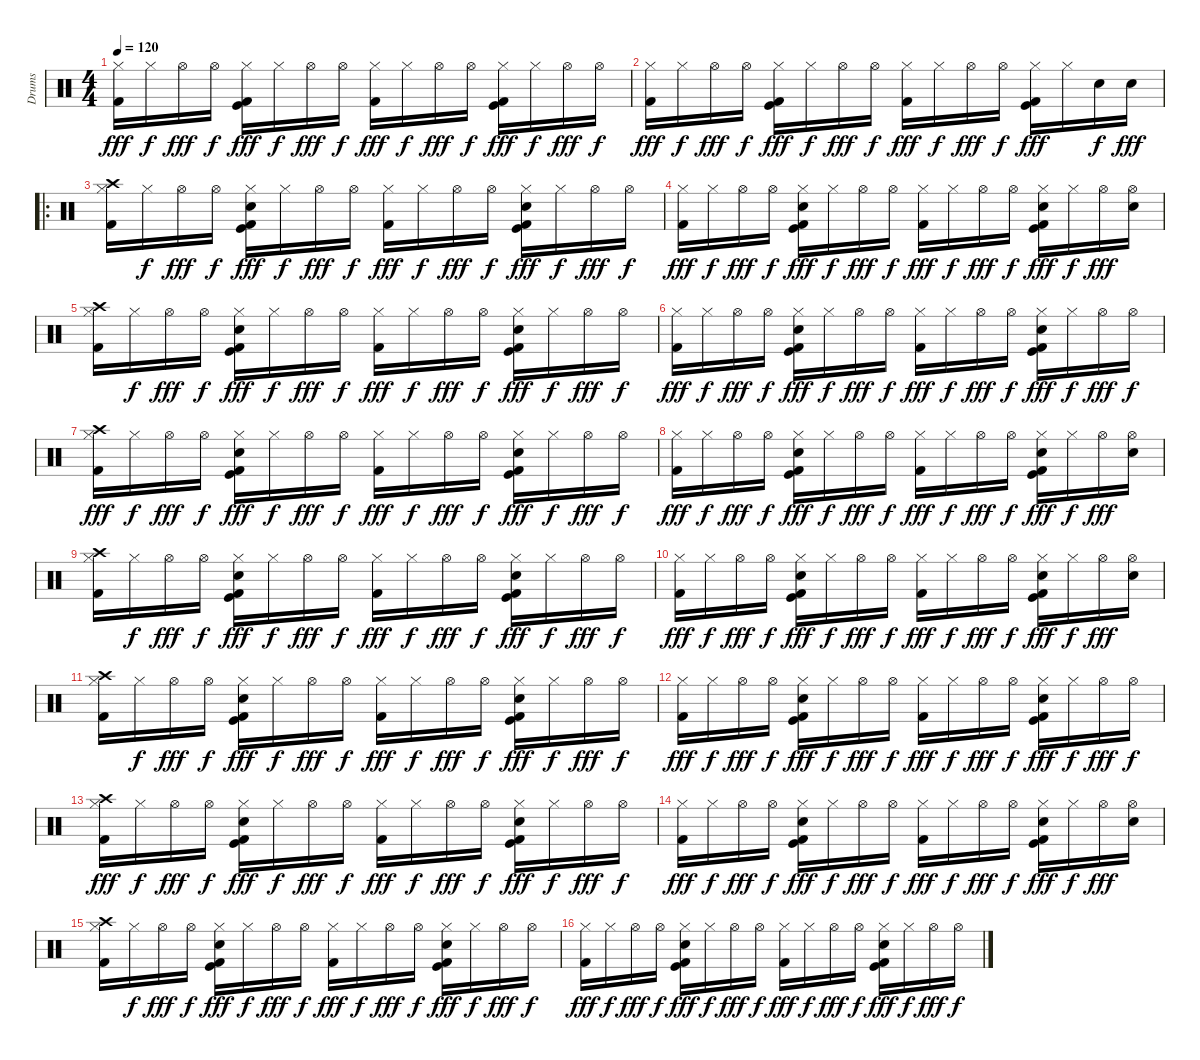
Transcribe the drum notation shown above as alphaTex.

\track ("Drums" "Drums") {instrument percussion}
\staff {score}
\articulation defaults
\ts (4 4)
\tempo 120
\clef neutral
\ks c
("Hi-Hat (closed)" "Kick (hit) 2").16{dy fff} "Hi-Hat (closed)".16{dy f} "Hi-Hat (open)".16{dy fff} "Hi-Hat (open)".16{dy f} ("Hi-Hat (closed)" "Kick (hit)" "Kick (hit) 2").16{dy fff} "Hi-Hat (closed)".16{dy f} "Hi-Hat (open)".16{dy fff} "Hi-Hat (open)".16{dy f} ("Hi-Hat (closed)" "Kick (hit) 2").16{dy fff} "Hi-Hat (closed)".16{dy f} "Hi-Hat (open)".16{dy fff} "Hi-Hat (open)".16{dy f} ("Hi-Hat (closed)" "Kick (hit)" "Kick (hit) 2").16{dy fff} "Hi-Hat (closed)".16{dy f} "Hi-Hat (open)".16{dy fff} "Hi-Hat (open)".16{dy f} |
("Hi-Hat (closed)" "Kick (hit) 2").16{dy fff} "Hi-Hat (closed)".16{dy f} "Hi-Hat (open)".16{dy fff} "Hi-Hat (open)".16{dy f} ("Hi-Hat (closed)" "Kick (hit)" "Kick (hit) 2").16{dy fff} "Hi-Hat (closed)".16{dy f} "Hi-Hat (open)".16{dy fff} "Hi-Hat (open)".16{dy f} ("Hi-Hat (closed)" "Kick (hit) 2").16{dy fff} "Hi-Hat (closed)".16{dy f} "Hi-Hat (open)".16{dy fff} "Hi-Hat (open)".16{dy f} ("Hi-Hat (closed)" "Kick (hit)" "Kick (hit) 2").16{dy fff} "Hi-Hat (closed)".16 "Electric Snare (hit)".16{dy f} "Electric Snare (hit)".16{dy fff} |
\ro
("Hi-Hat (closed)" "Crash high (hit)" "Kick (hit) 2").16 "Hi-Hat (closed)".16{dy f} "Hi-Hat (open)".16{dy fff} "Hi-Hat (open)".16{dy f} ("Hi-Hat (closed)" "Electric Snare (hit)" "Kick (hit)" "Kick (hit) 2").16{dy fff} "Hi-Hat (closed)".16{dy f} "Hi-Hat (open)".16{dy fff} "Hi-Hat (open)".16{dy f} ("Hi-Hat (closed)" "Kick (hit) 2").16{dy fff} "Hi-Hat (closed)".16{dy f} "Hi-Hat (open)".16{dy fff} "Hi-Hat (open)".16{dy f} ("Hi-Hat (closed)" "Electric Snare (hit)" "Kick (hit)" "Kick (hit) 2").16{dy fff} "Hi-Hat (closed)".16{dy f} "Hi-Hat (open)".16{dy fff} "Hi-Hat (open)".16{dy f} |
("Hi-Hat (closed)" "Kick (hit) 2").16{dy fff} "Hi-Hat (closed)".16{dy f} "Hi-Hat (open)".16{dy fff} "Hi-Hat (open)".16{dy f} ("Hi-Hat (closed)" "Electric Snare (hit)" "Kick (hit) 2" "Kick (hit)").16{dy fff} "Hi-Hat (closed)".16{dy f} "Hi-Hat (open)".16{dy fff} "Hi-Hat (open)".16{dy f} ("Hi-Hat (closed)" "Kick (hit) 2").16{dy fff} "Hi-Hat (closed)".16{dy f} "Hi-Hat (open)".16{dy fff} "Hi-Hat (open)".16{dy f} ("Hi-Hat (closed)" "Electric Snare (hit)" "Kick (hit)" "Kick (hit) 2").16{dy fff} "Hi-Hat (closed)".16{dy f} "Hi-Hat (open)".16{dy fff} ("Hi-Hat (open)" "Electric Snare (hit)").16 |
("Hi-Hat (closed)" "Crash high (hit)" "Kick (hit) 2").16 "Hi-Hat (closed)".16{dy f} "Hi-Hat (open)".16{dy fff} "Hi-Hat (open)".16{dy f} ("Hi-Hat (closed)" "Electric Snare (hit)" "Kick (hit)" "Kick (hit) 2").16{dy fff} "Hi-Hat (closed)".16{dy f} "Hi-Hat (open)".16{dy fff} "Hi-Hat (open)".16{dy f} ("Hi-Hat (closed)" "Kick (hit) 2").16{dy fff} "Hi-Hat (closed)".16{dy f} "Hi-Hat (open)".16{dy fff} "Hi-Hat (open)".16{dy f} ("Hi-Hat (closed)" "Electric Snare (hit)" "Kick (hit)" "Kick (hit) 2").16{dy fff} "Hi-Hat (closed)".16{dy f} "Hi-Hat (open)".16{dy fff} "Hi-Hat (open)".16{dy f} |
("Hi-Hat (closed)" "Kick (hit) 2").16{dy fff} "Hi-Hat (closed)".16{dy f} "Hi-Hat (open)".16{dy fff} "Hi-Hat (open)".16{dy f} ("Hi-Hat (closed)" "Electric Snare (hit)" "Kick (hit)" "Kick (hit) 2").16{dy fff} "Hi-Hat (closed)".16{dy f} "Hi-Hat (open)".16{dy fff} "Hi-Hat (open)".16{dy f} ("Hi-Hat (closed)" "Kick (hit) 2").16{dy fff} "Hi-Hat (closed)".16{dy f} "Hi-Hat (open)".16{dy fff} "Hi-Hat (open)".16{dy f} ("Hi-Hat (closed)" "Electric Snare (hit)" "Kick (hit)" "Kick (hit) 2").16{dy fff} "Hi-Hat (closed)".16{dy f} "Hi-Hat (open)".16{dy fff} "Hi-Hat (open)".16{dy f} |
("Hi-Hat (closed)" "Crash high (hit)" "Kick (hit) 2").16{dy fff} "Hi-Hat (closed)".16{dy f} "Hi-Hat (open)".16{dy fff} "Hi-Hat (open)".16{dy f} ("Hi-Hat (closed)" "Electric Snare (hit)" "Kick (hit) 2" "Kick (hit)").16{dy fff} "Hi-Hat (closed)".16{dy f} "Hi-Hat (open)".16{dy fff} "Hi-Hat (open)".16{dy f} ("Hi-Hat (closed)" "Kick (hit) 2").16{dy fff} "Hi-Hat (closed)".16{dy f} "Hi-Hat (open)".16{dy fff} "Hi-Hat (open)".16{dy f} ("Hi-Hat (closed)" "Electric Snare (hit)" "Kick (hit)" "Kick (hit) 2").16{dy fff} "Hi-Hat (closed)".16{dy f} "Hi-Hat (open)".16{dy fff} "Hi-Hat (open)".16{dy f} |
("Hi-Hat (closed)" "Kick (hit) 2").16{dy fff} "Hi-Hat (closed)".16{dy f} "Hi-Hat (open)".16{dy fff} "Hi-Hat (open)".16{dy f} ("Hi-Hat (closed)" "Electric Snare (hit)" "Kick (hit) 2" "Kick (hit)").16{dy fff} "Hi-Hat (closed)".16{dy f} "Hi-Hat (open)".16{dy fff} "Hi-Hat (open)".16{dy f} ("Hi-Hat (closed)" "Kick (hit) 2").16{dy fff} "Hi-Hat (closed)".16{dy f} "Hi-Hat (open)".16{dy fff} "Hi-Hat (open)".16{dy f} ("Hi-Hat (closed)" "Electric Snare (hit)" "Kick (hit)" "Kick (hit) 2").16{dy fff} "Hi-Hat (closed)".16{dy f} "Hi-Hat (open)".16{dy fff} ("Hi-Hat (open)" "Electric Snare (hit)").16 |
("Hi-Hat (closed)" "Crash high (hit)" "Kick (hit) 2").16 "Hi-Hat (closed)".16{dy f} "Hi-Hat (open)".16{dy fff} "Hi-Hat (open)".16{dy f} ("Hi-Hat (closed)" "Electric Snare (hit)" "Kick (hit) 2" "Kick (hit)").16{dy fff} "Hi-Hat (closed)".16{dy f} "Hi-Hat (open)".16{dy fff} "Hi-Hat (open)".16{dy f} ("Hi-Hat (closed)" "Kick (hit) 2").16{dy fff} "Hi-Hat (closed)".16{dy f} "Hi-Hat (open)".16{dy fff} "Hi-Hat (open)".16{dy f} ("Hi-Hat (closed)" "Electric Snare (hit)" "Kick (hit)" "Kick (hit) 2").16{dy fff} "Hi-Hat (closed)".16{dy f} "Hi-Hat (open)".16{dy fff} "Hi-Hat (open)".16{dy f} |
("Hi-Hat (closed)" "Kick (hit) 2").16{dy fff} "Hi-Hat (closed)".16{dy f} "Hi-Hat (open)".16{dy fff} "Hi-Hat (open)".16{dy f} ("Hi-Hat (closed)" "Electric Snare (hit)" "Kick (hit) 2" "Kick (hit)").16{dy fff} "Hi-Hat (closed)".16{dy f} "Hi-Hat (open)".16{dy fff} "Hi-Hat (open)".16{dy f} ("Hi-Hat (closed)" "Kick (hit) 2").16{dy fff} "Hi-Hat (closed)".16{dy f} "Hi-Hat (open)".16{dy fff} "Hi-Hat (open)".16{dy f} ("Hi-Hat (closed)" "Electric Snare (hit)" "Kick (hit)" "Kick (hit) 2").16{dy fff} "Hi-Hat (closed)".16{dy f} "Hi-Hat (open)".16{dy fff} ("Hi-Hat (open)" "Electric Snare (hit)").16 |
("Hi-Hat (closed)" "Crash high (hit)" "Kick (hit) 2").16 "Hi-Hat (closed)".16{dy f} "Hi-Hat (open)".16{dy fff} "Hi-Hat (open)".16{dy f} ("Hi-Hat (closed)" "Electric Snare (hit)" "Kick (hit) 2" "Kick (hit)").16{dy fff} "Hi-Hat (closed)".16{dy f} "Hi-Hat (open)".16{dy fff} "Hi-Hat (open)".16{dy f} ("Hi-Hat (closed)" "Kick (hit) 2").16{dy fff} "Hi-Hat (closed)".16{dy f} "Hi-Hat (open)".16{dy fff} "Hi-Hat (open)".16{dy f} ("Hi-Hat (closed)" "Electric Snare (hit)" "Kick (hit)" "Kick (hit) 2").16{dy fff} "Hi-Hat (closed)".16{dy f} "Hi-Hat (open)".16{dy fff} "Hi-Hat (open)".16{dy f} |
("Hi-Hat (closed)" "Kick (hit) 2").16{dy fff} "Hi-Hat (closed)".16{dy f} "Hi-Hat (open)".16{dy fff} "Hi-Hat (open)".16{dy f} ("Hi-Hat (closed)" "Electric Snare (hit)" "Kick (hit) 2" "Kick (hit)").16{dy fff} "Hi-Hat (closed)".16{dy f} "Hi-Hat (open)".16{dy fff} "Hi-Hat (open)".16{dy f} ("Hi-Hat (closed)" "Kick (hit) 2").16{dy fff} "Hi-Hat (closed)".16{dy f} "Hi-Hat (open)".16{dy fff} "Hi-Hat (open)".16{dy f} ("Hi-Hat (closed)" "Electric Snare (hit)" "Kick (hit)" "Kick (hit) 2").16{dy fff} "Hi-Hat (closed)".16{dy f} "Hi-Hat (open)".16{dy fff} "Hi-Hat (open)".16{dy f} |
("Hi-Hat (closed)" "Crash high (hit)" "Kick (hit) 2").16{dy fff} "Hi-Hat (closed)".16{dy f} "Hi-Hat (open)".16{dy fff} "Hi-Hat (open)".16{dy f} ("Hi-Hat (closed)" "Electric Snare (hit)" "Kick (hit) 2" "Kick (hit)").16{dy fff} "Hi-Hat (closed)".16{dy f} "Hi-Hat (open)".16{dy fff} "Hi-Hat (open)".16{dy f} ("Hi-Hat (closed)" "Kick (hit) 2").16{dy fff} "Hi-Hat (closed)".16{dy f} "Hi-Hat (open)".16{dy fff} "Hi-Hat (open)".16{dy f} ("Hi-Hat (closed)" "Electric Snare (hit)" "Kick (hit)" "Kick (hit) 2").16{dy fff} "Hi-Hat (closed)".16{dy f} "Hi-Hat (open)".16{dy fff} "Hi-Hat (open)".16{dy f} |
("Hi-Hat (closed)" "Kick (hit) 2").16{dy fff} "Hi-Hat (closed)".16{dy f} "Hi-Hat (open)".16{dy fff} "Hi-Hat (open)".16{dy f} ("Hi-Hat (closed)" "Electric Snare (hit)" "Kick (hit) 2" "Kick (hit)").16{dy fff} "Hi-Hat (closed)".16{dy f} "Hi-Hat (open)".16{dy fff} "Hi-Hat (open)".16{dy f} ("Hi-Hat (closed)" "Kick (hit) 2").16{dy fff} "Hi-Hat (closed)".16{dy f} "Hi-Hat (open)".16{dy fff} "Hi-Hat (open)".16{dy f} ("Hi-Hat (closed)" "Electric Snare (hit)" "Kick (hit)" "Kick (hit) 2").16{dy fff} "Hi-Hat (closed)".16{dy f} "Hi-Hat (open)".16{dy fff} ("Hi-Hat (open)" "Electric Snare (hit)").16 |
("Hi-Hat (closed)" "Crash high (hit)" "Kick (hit) 2").16 "Hi-Hat (closed)".16{dy f} "Hi-Hat (open)".16{dy fff} "Hi-Hat (open)".16{dy f} ("Hi-Hat (closed)" "Electric Snare (hit)" "Kick (hit) 2" "Kick (hit)").16{dy fff} "Hi-Hat (closed)".16{dy f} "Hi-Hat (open)".16{dy fff} "Hi-Hat (open)".16{dy f} ("Hi-Hat (closed)" "Kick (hit) 2").16{dy fff} "Hi-Hat (closed)".16{dy f} "Hi-Hat (open)".16{dy fff} "Hi-Hat (open)".16{dy f} ("Hi-Hat (closed)" "Electric Snare (hit)" "Kick (hit)" "Kick (hit) 2").16{dy fff} "Hi-Hat (closed)".16{dy f} "Hi-Hat (open)".16{dy fff} "Hi-Hat (open)".16{dy f} |
("Hi-Hat (closed)" "Kick (hit) 2").16{dy fff} "Hi-Hat (closed)".16{dy f} "Hi-Hat (open)".16{dy fff} "Hi-Hat (open)".16{dy f} ("Hi-Hat (closed)" "Electric Snare (hit)" "Kick (hit) 2" "Kick (hit)").16{dy fff} "Hi-Hat (closed)".16{dy f} "Hi-Hat (open)".16{dy fff} "Hi-Hat (open)".16{dy f} ("Hi-Hat (closed)" "Kick (hit) 2").16{dy fff} "Hi-Hat (closed)".16{dy f} "Hi-Hat (open)".16{dy fff} "Hi-Hat (open)".16{dy f} ("Hi-Hat (closed)" "Electric Snare (hit)" "Kick (hit)" "Kick (hit) 2").16{dy fff} "Hi-Hat (closed)".16{dy f} "Hi-Hat (open)".16{dy fff} "Hi-Hat (open)".16{dy f}
